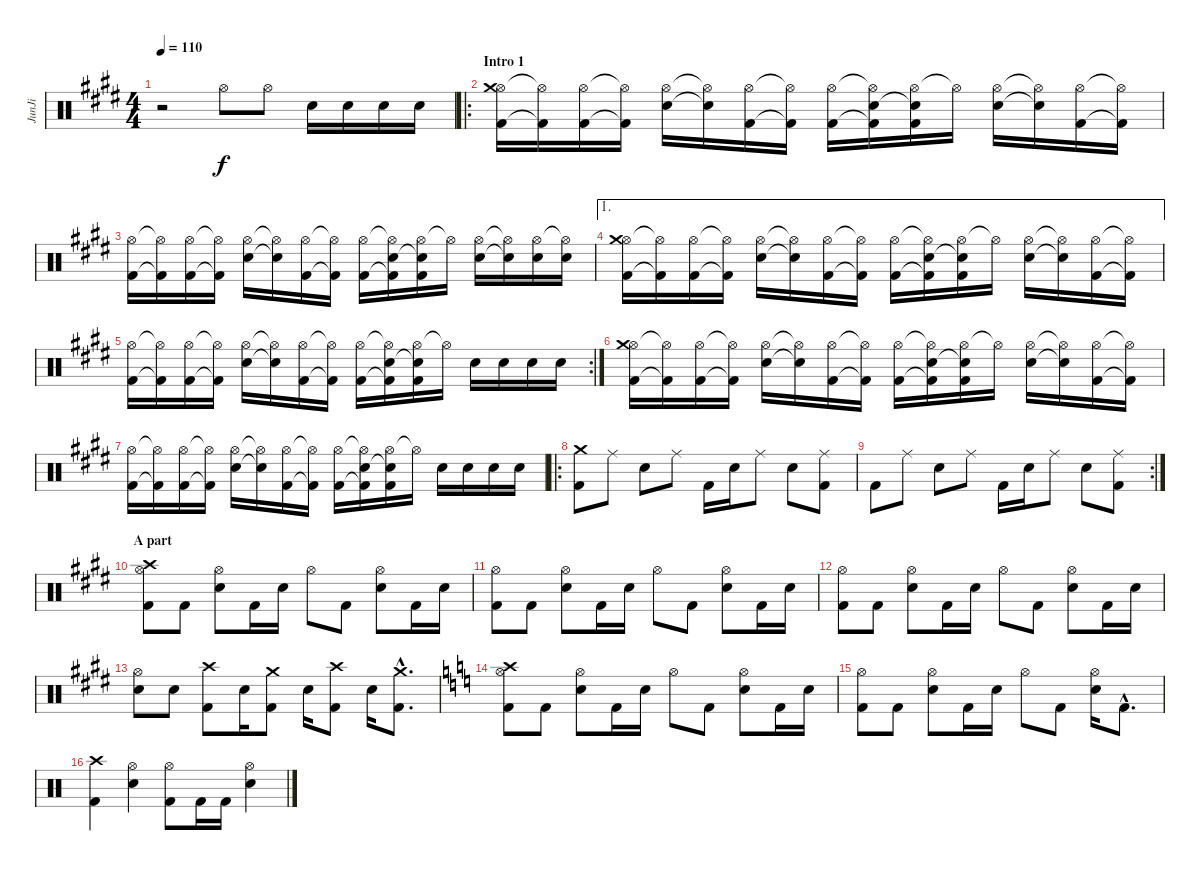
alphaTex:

\track ("JunJi" "JunJi") {instrument percussion}
\staff {score}
\articulation defaults
\ts (4 4)
\tempo 110
\clef neutral
\ks c#minor
r.2{dy f} "Hi-Hat (open)".8 "Hi-Hat (open)".8 "Snare (hit) 2".16 "Snare (hit) 2".16 "Snare (hit) 2".16 "Snare (hit) 2".16 |
\ro
\section ("" "Intro 1")
("Hi-Hat (open)" "Kick (hit) 2" "Crash medium (hit)").16 ("Hi-Hat (open)"{t} "Kick (hit) 2"{t}).16 ("Hi-Hat (open)" "Kick (hit) 2").16 ("Hi-Hat (open)"{t} "Kick (hit) 2"{t}).16 ("Hi-Hat (open)" "Snare (hit) 2").16 ("Hi-Hat (open)"{t} "Snare (hit) 2"{t}).16 ("Hi-Hat (open)" "Kick (hit) 2").16 ("Hi-Hat (open)"{t} "Kick (hit) 2"{t}).16 ("Hi-Hat (open)" "Kick (hit) 2").16 ("Hi-Hat (open)"{t} "Kick (hit) 2"{t} "Snare (hit) 2").16 ("Hi-Hat (open)" "Kick (hit) 2" "Snare (hit) 2"{t}).16 "Hi-Hat (open)"{t}.16 ("Hi-Hat (open)" "Snare (hit) 2").16 ("Hi-Hat (open)"{t} "Snare (hit) 2"{t}).16 ("Hi-Hat (open)" "Kick (hit) 2").16 ("Hi-Hat (open)"{t} "Kick (hit) 2"{t}).16 |
("Hi-Hat (open)" "Kick (hit) 2").16 ("Hi-Hat (open)"{t} "Kick (hit) 2"{t}).16 ("Hi-Hat (open)" "Kick (hit) 2").16 ("Hi-Hat (open)"{t} "Kick (hit) 2"{t}).16 ("Hi-Hat (open)" "Snare (hit) 2").16 ("Hi-Hat (open)"{t} "Snare (hit) 2"{t}).16 ("Hi-Hat (open)" "Kick (hit) 2").16 ("Hi-Hat (open)"{t} "Kick (hit) 2"{t}).16 ("Hi-Hat (open)" "Kick (hit) 2").16 ("Hi-Hat (open)"{t} "Kick (hit) 2"{t} "Snare (hit) 2").16 ("Hi-Hat (open)" "Kick (hit) 2" "Snare (hit) 2"{t}).16 "Hi-Hat (open)"{t}.16 ("Hi-Hat (open)" "Snare (hit) 2").16 ("Hi-Hat (open)"{t} "Snare (hit) 2"{t}).16 ("Hi-Hat (open)" "Snare (hit) 2").16 ("Hi-Hat (open)"{t} "Snare (hit) 2").16 |
\ae 1
("Hi-Hat (open)" "Kick (hit) 2" "Crash medium (hit)").16 ("Hi-Hat (open)"{t} "Kick (hit) 2"{t}).16 ("Hi-Hat (open)" "Kick (hit) 2").16 ("Hi-Hat (open)"{t} "Kick (hit) 2"{t}).16 ("Hi-Hat (open)" "Snare (hit) 2").16 ("Hi-Hat (open)"{t} "Snare (hit) 2"{t}).16 ("Hi-Hat (open)" "Kick (hit) 2").16 ("Hi-Hat (open)"{t} "Kick (hit) 2"{t}).16 ("Hi-Hat (open)" "Kick (hit) 2").16 ("Hi-Hat (open)"{t} "Kick (hit) 2"{t} "Snare (hit) 2").16 ("Hi-Hat (open)" "Kick (hit) 2" "Snare (hit) 2"{t}).16 "Hi-Hat (open)"{t}.16 ("Hi-Hat (open)" "Snare (hit) 2").16 ("Hi-Hat (open)"{t} "Snare (hit) 2"{t}).16 ("Hi-Hat (open)" "Kick (hit) 2").16 ("Hi-Hat (open)"{t} "Kick (hit) 2"{t}).16 |
\rc 2
("Hi-Hat (open)" "Kick (hit) 2").16 ("Hi-Hat (open)"{t} "Kick (hit) 2"{t}).16 ("Hi-Hat (open)" "Kick (hit) 2").16 ("Hi-Hat (open)"{t} "Kick (hit) 2"{t}).16 ("Hi-Hat (open)" "Snare (hit) 2").16 ("Hi-Hat (open)"{t} "Snare (hit) 2"{t}).16 ("Hi-Hat (open)" "Kick (hit) 2").16 ("Hi-Hat (open)"{t} "Kick (hit) 2"{t}).16 ("Hi-Hat (open)" "Kick (hit) 2").16 ("Hi-Hat (open)"{t} "Kick (hit) 2"{t} "Snare (hit) 2").16 ("Hi-Hat (open)" "Kick (hit) 2" "Snare (hit) 2"{t}).16 "Hi-Hat (open)"{t}.16 "Snare (hit) 2".16 "Snare (hit) 2".16 "Snare (hit) 2".16 "Snare (hit) 2".16 |
("Hi-Hat (open)" "Kick (hit) 2" "Crash medium (hit)").16 ("Hi-Hat (open)"{t} "Kick (hit) 2"{t}).16 ("Hi-Hat (open)" "Kick (hit) 2").16 ("Hi-Hat (open)"{t} "Kick (hit) 2"{t}).16 ("Hi-Hat (open)" "Snare (hit) 2").16 ("Hi-Hat (open)"{t} "Snare (hit) 2"{t}).16 ("Hi-Hat (open)" "Kick (hit) 2").16 ("Hi-Hat (open)"{t} "Kick (hit) 2"{t}).16 ("Hi-Hat (open)" "Kick (hit) 2").16 ("Hi-Hat (open)"{t} "Kick (hit) 2"{t} "Snare (hit) 2").16 ("Hi-Hat (open)" "Kick (hit) 2" "Snare (hit) 2"{t}).16 "Hi-Hat (open)"{t}.16 ("Hi-Hat (open)" "Snare (hit) 2").16 ("Hi-Hat (open)"{t} "Snare (hit) 2"{t}).16 ("Hi-Hat (open)" "Kick (hit) 2").16 ("Hi-Hat (open)"{t} "Kick (hit) 2"{t}).16 |
("Hi-Hat (open)" "Kick (hit) 2").16 ("Hi-Hat (open)"{t} "Kick (hit) 2"{t}).16 ("Hi-Hat (open)" "Kick (hit) 2").16 ("Hi-Hat (open)"{t} "Kick (hit) 2"{t}).16 ("Hi-Hat (open)" "Snare (hit) 2").16 ("Hi-Hat (open)"{t} "Snare (hit) 2"{t}).16 ("Hi-Hat (open)" "Kick (hit) 2").16 ("Hi-Hat (open)"{t} "Kick (hit) 2"{t}).16 ("Hi-Hat (open)" "Kick (hit) 2").16 ("Hi-Hat (open)"{t} "Kick (hit) 2"{t} "Snare (hit) 2").16 ("Hi-Hat (open)" "Kick (hit) 2" "Snare (hit) 2"{t}).16 "Hi-Hat (open)"{t}.16 "Snare (hit) 2".16 "Snare (hit) 2".16 "Snare (hit) 2".16 "Snare (hit) 2".16 |
\ro
("Kick (hit) 2" "Crash medium (hit)").8 "Ride (middle)".8 "Snare (hit) 2".8 "Ride (middle)".8 "Kick (hit) 2".16 "Snare (hit) 2".16 "Ride (middle)".8 "Snare (hit) 2".8 ("Ride (middle)" "Kick (hit) 2").8 |
\rc 2 "Kick (hit) 2".8 "Ride (middle)".8 "Snare (hit) 2".8 "Ride (middle)".8 "Kick (hit) 2".16 "Snare (hit) 2".16 "Ride (middle)".8 "Snare (hit) 2".8
("Ride (middle)" "Kick (hit) 2").8 |
\section ("" "A part")
("Hi-Hat (open)" "Kick (hit) 2" "Crash high (hit)").8 "Kick (hit) 2".8 ("Hi-Hat (open)" "Snare (hit) 2").8 "Kick (hit) 2".16 "Snare (hit) 2".16 "Hi-Hat (open)".8 "Kick (hit) 2".8 ("Hi-Hat (open)" "Snare (hit) 2").8 "Kick (hit) 2".16 "Snare (hit) 2".16 |
("Hi-Hat (open)" "Kick (hit) 2").8 "Kick (hit) 2".8 ("Hi-Hat (open)" "Snare (hit) 2").8 "Kick (hit) 2".16 "Snare (hit) 2".16 "Hi-Hat (open)".8 "Kick (hit) 2".8 ("Hi-Hat (open)" "Snare (hit) 2").8 "Kick (hit) 2".16 "Snare (hit) 2".16 |
("Hi-Hat (open)" "Kick (hit) 2").8 "Kick (hit) 2".8 ("Hi-Hat (open)" "Snare (hit) 2").8 "Kick (hit) 2".16 "Snare (hit) 2".16 "Hi-Hat (open)".8 "Kick (hit) 2".8 ("Hi-Hat (open)" "Snare (hit) 2").8 "Kick (hit) 2".16 "Snare (hit) 2".16 |
("Hi-Hat (open)" "Snare (hit) 2").8 "Snare (hit) 2".8 ("Crash high (hit)" "Kick (hit) 2").8 "Snare (hit) 2".16 ("Crash medium (hit)" "Kick (hit) 2").8 "Snare (hit) 2".16 ("Crash high (hit)" "Kick (hit) 2").8 "Snare (hit) 2".16 ("Crash medium (hit)"{hac} "Kick (hit) 2"{hac}).8{d} |
\ks c
("Hi-Hat (open)" "Kick (hit) 2" "Crash high (hit)").8 "Kick (hit) 2".8 ("Hi-Hat (open)" "Snare (hit) 2").8 "Kick (hit) 2".16 "Snare (hit) 2".16 "Hi-Hat (open)".8 "Kick (hit) 2".8 ("Hi-Hat (open)" "Snare (hit) 2").8 "Kick (hit) 2".16 "Snare (hit) 2".16 |
("Hi-Hat (open)" "Kick (hit) 2").8 "Kick (hit) 2".8 ("Hi-Hat (open)" "Snare (hit) 2").8 "Kick (hit) 2".16 "Snare (hit) 2".16 "Hi-Hat (open)".8 "Kick (hit) 2".8 ("Hi-Hat (open)" "Snare (hit) 2").16 "Kick (hit) 2"{hac}.8{d} |
("Crash high (hit)" "Kick (hit) 2").4 ("Hi-Hat (open)" "Snare (hit) 2").4 ("Hi-Hat (open)" "Kick (hit) 2").8 "Kick (hit) 2".16 "Kick (hit) 2".16 ("Hi-Hat (open)" "Snare (hit) 2").4
